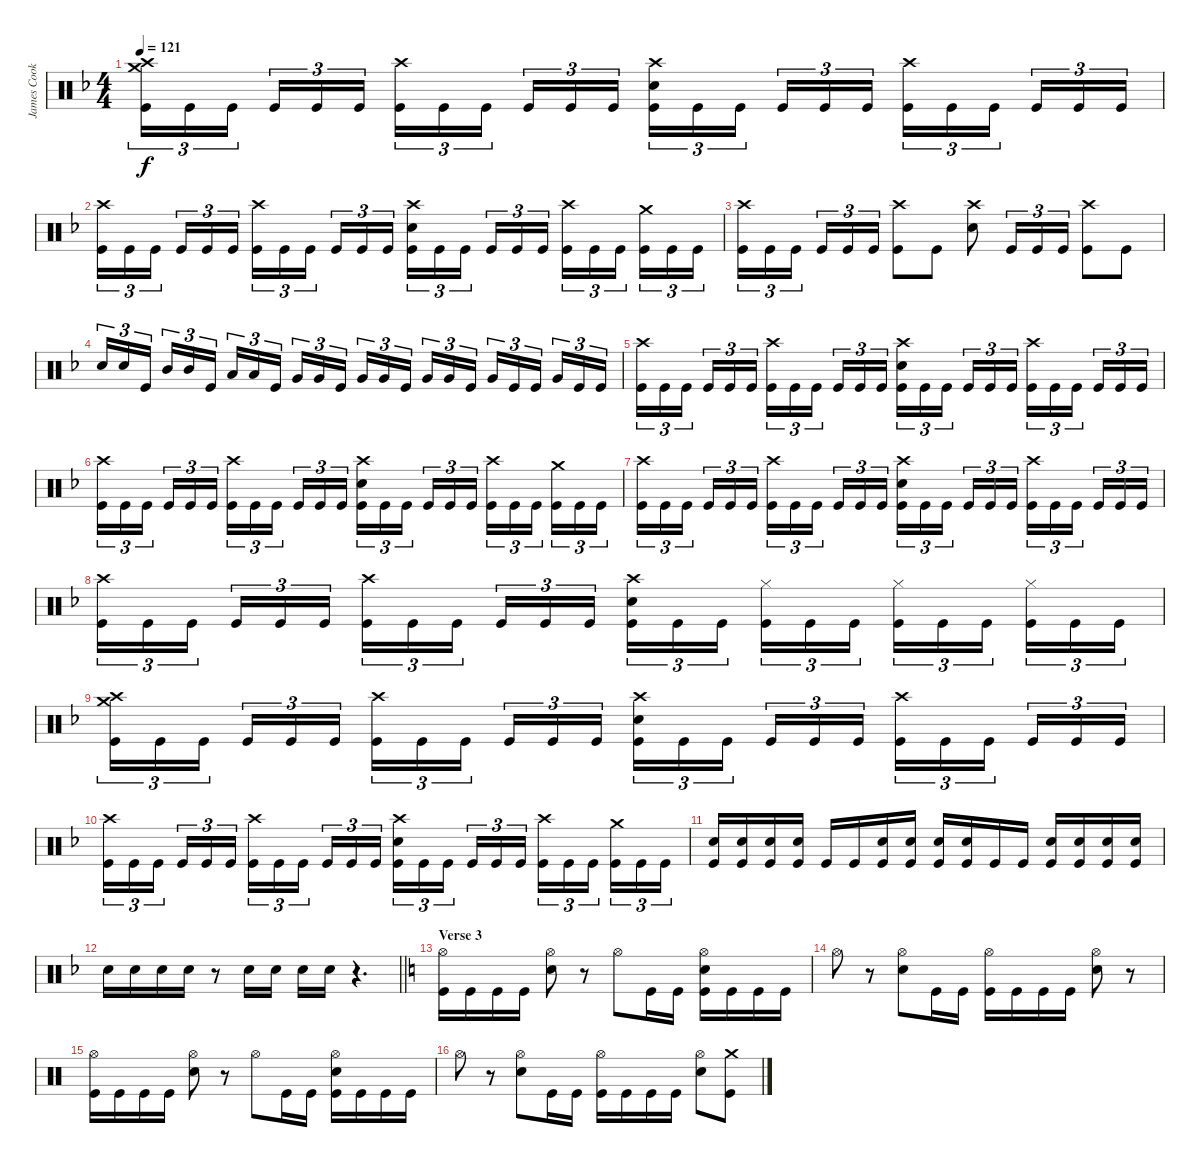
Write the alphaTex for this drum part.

\track ("James Cook" "James Cook") {instrument percussion}
\staff {score}
\articulation defaults
\ts (4 4)
\tempo 121
\clef neutral
\ks f
("Crash high (hit)" "Crash medium (hit)" "Kick (hit)").16{tu (3 2) dy f} "Kick (hit)".16{tu (3 2)} "Kick (hit)".16{tu (3 2) beam splitsecondary} "Kick (hit)".16{tu (3 2)} "Kick (hit)".16{tu (3 2)} "Kick (hit)".16{tu (3 2)} ("Crash high (hit)" "Kick (hit)").16{tu (3 2)} "Kick (hit)".16{tu (3 2)} "Kick (hit)".16{tu (3 2) beam splitsecondary} "Kick (hit)".16{tu (3 2)} "Kick (hit)".16{tu (3 2)} "Kick (hit)".16{tu (3 2)} ("Crash high (hit)" "Snare (hit) 2" "Kick (hit)").16{tu (3 2)} "Kick (hit)".16{tu (3 2)} "Kick (hit)".16{tu (3 2) beam splitsecondary} "Kick (hit)".16{tu (3 2)} "Kick (hit)".16{tu (3 2)} "Kick (hit)".16{tu (3 2)} ("Crash high (hit)" "Kick (hit)").16{tu (3 2)} "Kick (hit)".16{tu (3 2)} "Kick (hit)".16{tu (3 2) beam splitsecondary} "Kick (hit)".16{tu (3 2)} "Kick (hit)".16{tu (3 2)} "Kick (hit)".16{tu (3 2)} |
("Crash high (hit)" "Kick (hit)").16{tu (3 2)} "Kick (hit)".16{tu (3 2)} "Kick (hit)".16{tu (3 2) beam splitsecondary} "Kick (hit)".16{tu (3 2)} "Kick (hit)".16{tu (3 2)} "Kick (hit)".16{tu (3 2)} ("Crash high (hit)" "Kick (hit)").16{tu (3 2)} "Kick (hit)".16{tu (3 2)} "Kick (hit)".16{tu (3 2) beam splitsecondary} "Kick (hit)".16{tu (3 2)} "Kick (hit)".16{tu (3 2)} "Kick (hit)".16{tu (3 2)} ("Crash high (hit)" "Snare (hit) 2" "Kick (hit)").16{tu (3 2)} "Kick (hit)".16{tu (3 2)} "Kick (hit)".16{tu (3 2) beam splitsecondary} "Kick (hit)".16{tu (3 2)} "Kick (hit)".16{tu (3 2)} "Kick (hit)".16{tu (3 2)} ("Crash high (hit)" "Kick (hit)").16{tu (3 2)} "Kick (hit)".16{tu (3 2)} "Kick (hit)".16{tu (3 2) beam splitsecondary} ("Crash medium (hit)" "Kick (hit)").16{tu (3 2)} "Kick (hit)".16{tu (3 2)} "Kick (hit)".16{tu (3 2)} |
("Crash high (hit)" "Kick (hit)").16{tu (3 2)} "Kick (hit)".16{tu (3 2)} "Kick (hit)".16{tu (3 2) beam splitsecondary} "Kick (hit)".16{tu (3 2)} "Kick (hit)".16{tu (3 2)} "Kick (hit)".16{tu (3 2)} ("Crash high (hit)" "Kick (hit)").8 "Kick (hit)".8 ("Crash high (hit)" "Snare (hit) 2").8 "Kick (hit)".16{tu (3 2)} "Kick (hit)".16{tu (3 2)} "Kick (hit)".16{tu (3 2)} ("Crash high (hit)" "Kick (hit)").8 "Kick (hit)".8 |
"Snare (hit) 2".16{tu (3 2)} "Snare (hit) 2".16{tu (3 2)} "Kick (hit)".16{tu (3 2) beam splitsecondary} "Mid Tom (hit)".16{tu (3 2)} "Mid Tom (hit)".16{tu (3 2)} "Kick (hit)".16{tu (3 2)} "Low Tom (hit)".16{tu (3 2)} "Low Tom (hit)".16{tu (3 2)} "Kick (hit)".16{tu (3 2) beam splitsecondary} "Very Low Tom (hit)".16{tu (3 2)} "Very Low Tom (hit)".16{tu (3 2)} "Kick (hit)".16{tu (3 2)} "Very Low Tom (hit)".16{tu (3 2)} "Very Low Tom (hit)".16{tu (3 2)} "Kick (hit)".16{tu (3 2) beam splitsecondary} "Very Low Tom (hit)".16{tu (3 2)} "Very Low Tom (hit)".16{tu (3 2)} "Kick (hit)".16{tu (3 2)} "Very Low Tom (hit)".16{tu (3 2)} "Kick (hit)".16{tu (3 2)} "Kick (hit)".16{tu (3 2) beam splitsecondary} "Very Low Tom (hit)".16{tu (3 2)} "Kick (hit)".16{tu (3 2)} "Kick (hit)".16{tu (3 2)} |
("Crash high (hit)" "Kick (hit)").16{tu (3 2)} "Kick (hit)".16{tu (3 2)} "Kick (hit)".16{tu (3 2) beam splitsecondary} "Kick (hit)".16{tu (3 2)} "Kick (hit)".16{tu (3 2)} "Kick (hit)".16{tu (3 2)} ("Crash high (hit)" "Kick (hit)").16{tu (3 2)} "Kick (hit)".16{tu (3 2)} "Kick (hit)".16{tu (3 2) beam splitsecondary} "Kick (hit)".16{tu (3 2)} "Kick (hit)".16{tu (3 2)} "Kick (hit)".16{tu (3 2)} ("Crash high (hit)" "Snare (hit) 2" "Kick (hit)").16{tu (3 2)} "Kick (hit)".16{tu (3 2)} "Kick (hit)".16{tu (3 2) beam splitsecondary} "Kick (hit)".16{tu (3 2)} "Kick (hit)".16{tu (3 2)} "Kick (hit)".16{tu (3 2)} ("Crash high (hit)" "Kick (hit)").16{tu (3 2)} "Kick (hit)".16{tu (3 2)} "Kick (hit)".16{tu (3 2) beam splitsecondary} "Kick (hit)".16{tu (3 2)} "Kick (hit)".16{tu (3 2)} "Kick (hit)".16{tu (3 2)} |
("Crash high (hit)" "Kick (hit)").16{tu (3 2)} "Kick (hit)".16{tu (3 2)} "Kick (hit)".16{tu (3 2) beam splitsecondary} "Kick (hit)".16{tu (3 2)} "Kick (hit)".16{tu (3 2)} "Kick (hit)".16{tu (3 2)} ("Crash high (hit)" "Kick (hit)").16{tu (3 2)} "Kick (hit)".16{tu (3 2)} "Kick (hit)".16{tu (3 2) beam splitsecondary} "Kick (hit)".16{tu (3 2)} "Kick (hit)".16{tu (3 2)} "Kick (hit)".16{tu (3 2)} ("Crash high (hit)" "Snare (hit) 2" "Kick (hit)").16{tu (3 2)} "Kick (hit)".16{tu (3 2)} "Kick (hit)".16{tu (3 2) beam splitsecondary} "Kick (hit)".16{tu (3 2)} "Kick (hit)".16{tu (3 2)} "Kick (hit)".16{tu (3 2)} ("Crash high (hit)" "Kick (hit)").16{tu (3 2)} "Kick (hit)".16{tu (3 2)} "Kick (hit)".16{tu (3 2) beam splitsecondary} ("Crash medium (hit)" "Kick (hit)").16{tu (3 2)} "Kick (hit)".16{tu (3 2)} "Kick (hit)".16{tu (3 2)} |
("Crash high (hit)" "Kick (hit)").16{tu (3 2)} "Kick (hit)".16{tu (3 2)} "Kick (hit)".16{tu (3 2) beam splitsecondary} "Kick (hit)".16{tu (3 2)} "Kick (hit)".16{tu (3 2)} "Kick (hit)".16{tu (3 2)} ("Crash high (hit)" "Kick (hit)").16{tu (3 2)} "Kick (hit)".16{tu (3 2)} "Kick (hit)".16{tu (3 2) beam splitsecondary} "Kick (hit)".16{tu (3 2)} "Kick (hit)".16{tu (3 2)} "Kick (hit)".16{tu (3 2)} ("Crash high (hit)" "Snare (hit) 2" "Kick (hit)").16{tu (3 2)} "Kick (hit)".16{tu (3 2)} "Kick (hit)".16{tu (3 2) beam splitsecondary} "Kick (hit)".16{tu (3 2)} "Kick (hit)".16{tu (3 2)} "Kick (hit)".16{tu (3 2)} ("Crash high (hit)" "Kick (hit)").16{tu (3 2)} "Kick (hit)".16{tu (3 2)} "Kick (hit)".16{tu (3 2) beam splitsecondary} "Kick (hit)".16{tu (3 2)} "Kick (hit)".16{tu (3 2)} "Kick (hit)".16{tu (3 2)} |
("Crash high (hit)" "Kick (hit)").16{tu (3 2)} "Kick (hit)".16{tu (3 2)} "Kick (hit)".16{tu (3 2) beam splitsecondary} "Kick (hit)".16{tu (3 2)} "Kick (hit)".16{tu (3 2)} "Kick (hit)".16{tu (3 2)} ("Crash high (hit)" "Kick (hit)").16{tu (3 2)} "Kick (hit)".16{tu (3 2)} "Kick (hit)".16{tu (3 2) beam splitsecondary} "Kick (hit)".16{tu (3 2)} "Kick (hit)".16{tu (3 2)} "Kick (hit)".16{tu (3 2)} ("Crash high (hit)" "Snare (hit) 2" "Kick (hit)").16{tu (3 2)} "Kick (hit)".16{tu (3 2)} "Kick (hit)".16{tu (3 2) beam splitsecondary} ("Hi-Hat (closed)" "Kick (hit)").16{tu (3 2)} "Kick (hit)".16{tu (3 2)} "Kick (hit)".16{tu (3 2)} ("Hi-Hat (closed)" "Kick (hit)").16{tu (3 2)} "Kick (hit)".16{tu (3 2)} "Kick (hit)".16{tu (3 2) beam splitsecondary} ("Hi-Hat (closed)" "Kick (hit)").16{tu (3 2)} "Kick (hit)".16{tu (3 2)} "Kick (hit)".16{tu (3 2)} |
("Crash high (hit)" "Crash medium (hit)" "Kick (hit)").16{tu (3 2)} "Kick (hit)".16{tu (3 2)} "Kick (hit)".16{tu (3 2) beam splitsecondary} "Kick (hit)".16{tu (3 2)} "Kick (hit)".16{tu (3 2)} "Kick (hit)".16{tu (3 2)} ("Crash high (hit)" "Kick (hit)").16{tu (3 2)} "Kick (hit)".16{tu (3 2)} "Kick (hit)".16{tu (3 2) beam splitsecondary} "Kick (hit)".16{tu (3 2)} "Kick (hit)".16{tu (3 2)} "Kick (hit)".16{tu (3 2)} ("Crash high (hit)" "Snare (hit) 2" "Kick (hit)").16{tu (3 2)} "Kick (hit)".16{tu (3 2)} "Kick (hit)".16{tu (3 2) beam splitsecondary} "Kick (hit)".16{tu (3 2)} "Kick (hit)".16{tu (3 2)} "Kick (hit)".16{tu (3 2)} ("Crash high (hit)" "Kick (hit)").16{tu (3 2)} "Kick (hit)".16{tu (3 2)} "Kick (hit)".16{tu (3 2) beam splitsecondary} "Kick (hit)".16{tu (3 2)} "Kick (hit)".16{tu (3 2)} "Kick (hit)".16{tu (3 2)} |
("Crash high (hit)" "Kick (hit)").16{tu (3 2)} "Kick (hit)".16{tu (3 2)} "Kick (hit)".16{tu (3 2) beam splitsecondary} "Kick (hit)".16{tu (3 2)} "Kick (hit)".16{tu (3 2)} "Kick (hit)".16{tu (3 2)} ("Crash high (hit)" "Kick (hit)").16{tu (3 2)} "Kick (hit)".16{tu (3 2)} "Kick (hit)".16{tu (3 2) beam splitsecondary} "Kick (hit)".16{tu (3 2)} "Kick (hit)".16{tu (3 2)} "Kick (hit)".16{tu (3 2)} ("Crash high (hit)" "Snare (hit) 2" "Kick (hit)").16{tu (3 2)} "Kick (hit)".16{tu (3 2)} "Kick (hit)".16{tu (3 2) beam splitsecondary} "Kick (hit)".16{tu (3 2)} "Kick (hit)".16{tu (3 2)} "Kick (hit)".16{tu (3 2)} ("Crash high (hit)" "Kick (hit)").16{tu (3 2)} "Kick (hit)".16{tu (3 2)} "Kick (hit)".16{tu (3 2) beam splitsecondary} ("Crash medium (hit)" "Kick (hit)").16{tu (3 2)} "Kick (hit)".16{tu (3 2)} "Kick (hit)".16{tu (3 2)} |
("Snare (hit) 2" "Kick (hit)").16 ("Snare (hit) 2" "Kick (hit)").16 ("Snare (hit) 2" "Kick (hit)").16 ("Snare (hit) 2" "Kick (hit)").16 "Kick (hit)".16 "Kick (hit)".16 ("Snare (hit) 2" "Kick (hit)").16 ("Snare (hit) 2" "Kick (hit)").16 ("Snare (hit) 2" "Kick (hit)").16 ("Snare (hit) 2" "Kick (hit)").16 "Kick (hit)".16 "Kick (hit)".16 ("Snare (hit) 2" "Kick (hit)").16 ("Snare (hit) 2" "Kick (hit)").16 ("Snare (hit) 2" "Kick (hit)").16 ("Snare (hit) 2" "Kick (hit)").16 |
\barLineRight lightlight "Snare (hit) 2".16 "Snare (hit) 2".16 "Snare (hit) 2".16 "Snare (hit) 2".16
r.8 "Snare (hit) 2".16 "Snare (hit) 2".16 "Snare (hit) 2".16 "Snare (hit) 2".16 r.4{d} |
\section ("" "Verse 3")
\ks c
("Hi-Hat (open)" "Kick (hit)").16 "Kick (hit)".16 "Kick (hit)".16 "Kick (hit)".16 ("Hi-Hat (open)" "Snare (hit) 2").8 r.8 "Hi-Hat (open)".8 "Kick (hit)".16 "Kick (hit)".16 ("Hi-Hat (open)" "Snare (hit) 2" "Kick (hit)").16 "Kick (hit)".16 "Kick (hit)".16 "Kick (hit)".16 |
"Hi-Hat (open)".8 r.8 ("Hi-Hat (open)" "Snare (hit) 2").8 "Kick (hit)".16 "Kick (hit)".16 ("Hi-Hat (open)" "Kick (hit)").16 "Kick (hit)".16 "Kick (hit)".16 "Kick (hit)".16 ("Hi-Hat (open)" "Snare (hit) 2").8 r.8 |
("Hi-Hat (open)" "Kick (hit)").16 "Kick (hit)".16 "Kick (hit)".16 "Kick (hit)".16 ("Hi-Hat (open)" "Snare (hit) 2").8 r.8 "Hi-Hat (open)".8 "Kick (hit)".16 "Kick (hit)".16 ("Hi-Hat (open)" "Snare (hit) 2" "Kick (hit)").16 "Kick (hit)".16 "Kick (hit)".16 "Kick (hit)".16 |
"Hi-Hat (open)".8 r.8 ("Hi-Hat (open)" "Snare (hit) 2").8 "Kick (hit)".16 "Kick (hit)".16 ("Hi-Hat (open)" "Kick (hit)").16 "Kick (hit)".16 "Kick (hit)".16 "Kick (hit)".16 ("Hi-Hat (open)" "Snare (hit) 2").8 ("Crash medium (hit)" "Kick (hit)").8
